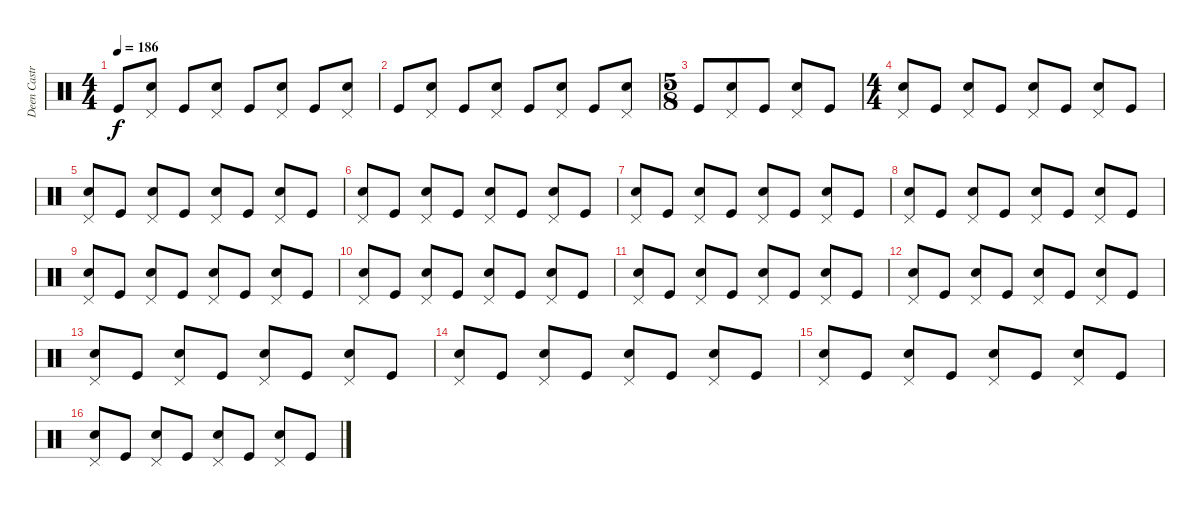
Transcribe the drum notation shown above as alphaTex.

\track ("Deen Castronovo" "Deen Castr") {instrument percussion}
\staff {score}
\articulation defaults
\ts (4 4)
\tempo 186
\clef neutral
\ks c "Kick (hit)".8{dy f}
("Pedal Hi-Hat (hit)" "Snare (hit) 2").8 "Kick (hit)".8 ("Pedal Hi-Hat (hit)" "Snare (hit) 2").8 "Kick (hit)".8 ("Pedal Hi-Hat (hit)" "Snare (hit) 2").8 "Kick (hit)".8 ("Pedal Hi-Hat (hit)" "Snare (hit) 2").8 |
"Kick (hit)".8 ("Pedal Hi-Hat (hit)" "Snare (hit) 2").8 "Kick (hit)".8 ("Pedal Hi-Hat (hit)" "Snare (hit) 2").8 "Kick (hit)".8 ("Pedal Hi-Hat (hit)" "Snare (hit) 2").8 "Kick (hit)".8 ("Pedal Hi-Hat (hit)" "Snare (hit) 2").8 |
\ts (5 8)
"Kick (hit)".8 ("Pedal Hi-Hat (hit)" "Snare (hit) 2").8 "Kick (hit)".8 ("Pedal Hi-Hat (hit)" "Snare (hit) 2").8 "Kick (hit)".8 |
\ts (4 4)
("Pedal Hi-Hat (hit)" "Snare (hit) 2").8 "Kick (hit)".8 ("Pedal Hi-Hat (hit)" "Snare (hit) 2").8 "Kick (hit)".8 ("Pedal Hi-Hat (hit)" "Snare (hit) 2").8 "Kick (hit)".8 ("Pedal Hi-Hat (hit)" "Snare (hit) 2").8 "Kick (hit)".8 |
("Pedal Hi-Hat (hit)" "Snare (hit) 2").8 "Kick (hit)".8 ("Pedal Hi-Hat (hit)" "Snare (hit) 2").8 "Kick (hit)".8 ("Pedal Hi-Hat (hit)" "Snare (hit) 2").8 "Kick (hit)".8 ("Pedal Hi-Hat (hit)" "Snare (hit) 2").8 "Kick (hit)".8 |
("Pedal Hi-Hat (hit)" "Snare (hit) 2").8 "Kick (hit)".8 ("Pedal Hi-Hat (hit)" "Snare (hit) 2").8 "Kick (hit)".8 ("Pedal Hi-Hat (hit)" "Snare (hit) 2").8 "Kick (hit)".8 ("Pedal Hi-Hat (hit)" "Snare (hit) 2").8 "Kick (hit)".8 |
("Pedal Hi-Hat (hit)" "Snare (hit) 2").8 "Kick (hit)".8 ("Pedal Hi-Hat (hit)" "Snare (hit) 2").8 "Kick (hit)".8 ("Pedal Hi-Hat (hit)" "Snare (hit) 2").8 "Kick (hit)".8 ("Pedal Hi-Hat (hit)" "Snare (hit) 2").8 "Kick (hit)".8 |
("Pedal Hi-Hat (hit)" "Snare (hit) 2").8 "Kick (hit)".8 ("Pedal Hi-Hat (hit)" "Snare (hit) 2").8 "Kick (hit)".8 ("Pedal Hi-Hat (hit)" "Snare (hit) 2").8 "Kick (hit)".8 ("Pedal Hi-Hat (hit)" "Snare (hit) 2").8 "Kick (hit)".8 |
("Pedal Hi-Hat (hit)" "Snare (hit) 2").8 "Kick (hit)".8 ("Pedal Hi-Hat (hit)" "Snare (hit) 2").8 "Kick (hit)".8 ("Pedal Hi-Hat (hit)" "Snare (hit) 2").8 "Kick (hit)".8 ("Pedal Hi-Hat (hit)" "Snare (hit) 2").8 "Kick (hit)".8 |
("Pedal Hi-Hat (hit)" "Snare (hit) 2").8 "Kick (hit)".8 ("Pedal Hi-Hat (hit)" "Snare (hit) 2").8 "Kick (hit)".8 ("Pedal Hi-Hat (hit)" "Snare (hit) 2").8 "Kick (hit)".8 ("Pedal Hi-Hat (hit)" "Snare (hit) 2").8 "Kick (hit)".8 |
("Pedal Hi-Hat (hit)" "Snare (hit) 2").8 "Kick (hit)".8 ("Pedal Hi-Hat (hit)" "Snare (hit) 2").8 "Kick (hit)".8 ("Pedal Hi-Hat (hit)" "Snare (hit) 2").8 "Kick (hit)".8 ("Pedal Hi-Hat (hit)" "Snare (hit) 2").8 "Kick (hit)".8 |
("Pedal Hi-Hat (hit)" "Snare (hit) 2").8 "Kick (hit)".8 ("Pedal Hi-Hat (hit)" "Snare (hit) 2").8 "Kick (hit)".8 ("Pedal Hi-Hat (hit)" "Snare (hit) 2").8 "Kick (hit)".8 ("Pedal Hi-Hat (hit)" "Snare (hit) 2").8 "Kick (hit)".8 |
("Pedal Hi-Hat (hit)" "Snare (hit) 2").8 "Kick (hit)".8 ("Pedal Hi-Hat (hit)" "Snare (hit) 2").8 "Kick (hit)".8 ("Pedal Hi-Hat (hit)" "Snare (hit) 2").8 "Kick (hit)".8 ("Pedal Hi-Hat (hit)" "Snare (hit) 2").8 "Kick (hit)".8 |
("Pedal Hi-Hat (hit)" "Snare (hit) 2").8 "Kick (hit)".8 ("Pedal Hi-Hat (hit)" "Snare (hit) 2").8 "Kick (hit)".8 ("Pedal Hi-Hat (hit)" "Snare (hit) 2").8 "Kick (hit)".8 ("Pedal Hi-Hat (hit)" "Snare (hit) 2").8 "Kick (hit)".8 |
("Pedal Hi-Hat (hit)" "Snare (hit) 2").8 "Kick (hit)".8 ("Pedal Hi-Hat (hit)" "Snare (hit) 2").8 "Kick (hit)".8 ("Pedal Hi-Hat (hit)" "Snare (hit) 2").8 "Kick (hit)".8 ("Pedal Hi-Hat (hit)" "Snare (hit) 2").8 "Kick (hit)".8 |
("Pedal Hi-Hat (hit)" "Snare (hit) 2").8 "Kick (hit)".8 ("Pedal Hi-Hat (hit)" "Snare (hit) 2").8 "Kick (hit)".8 ("Pedal Hi-Hat (hit)" "Snare (hit) 2").8 "Kick (hit)".8 ("Pedal Hi-Hat (hit)" "Snare (hit) 2").8 "Kick (hit)".8
